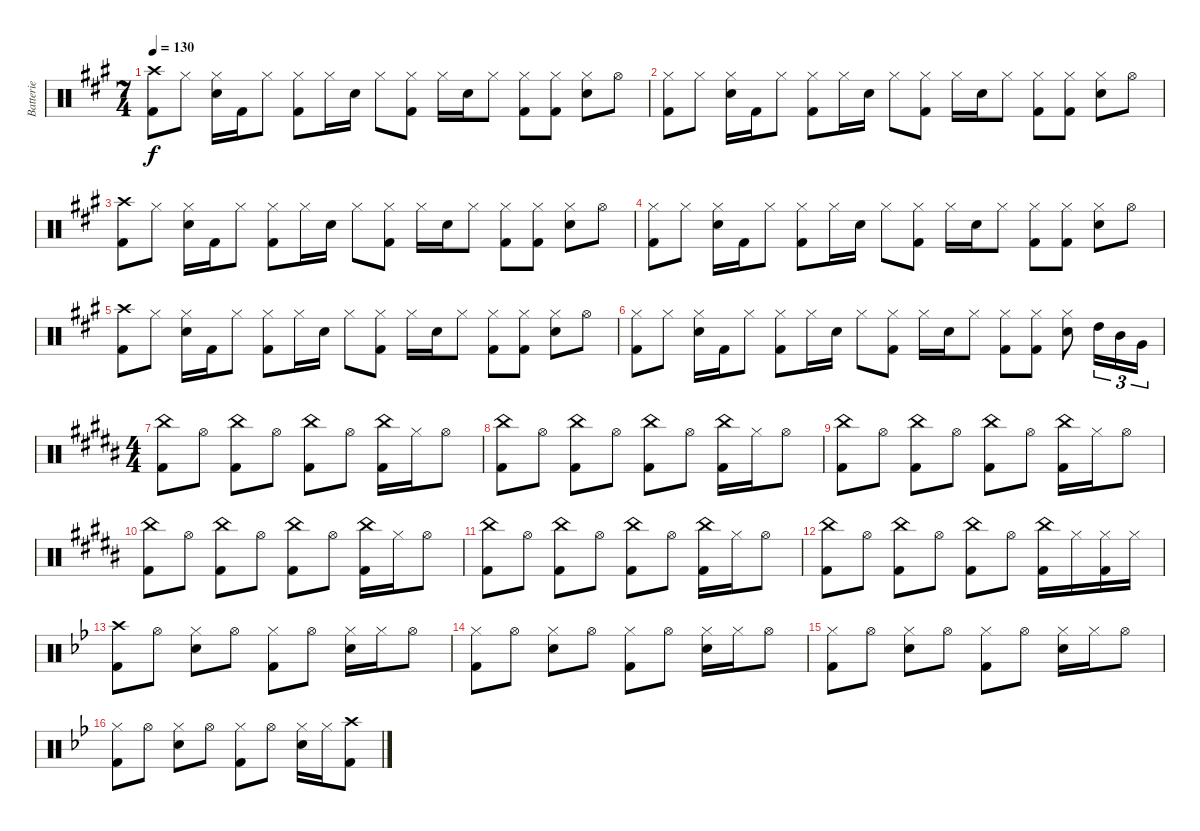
\track ("Batterie" "Batterie") {instrument percussion}
\staff {score}
\articulation defaults
\ts (7 4)
\tempo 130
\clef neutral
\ks a
("Crash high (hit)" "Kick (hit) 2").8{dy f} "Hi-Hat (closed)".8 ("Hi-Hat (closed)" "Snare (hit) 2").16 "Kick (hit) 2".16 "Hi-Hat (closed)".8 ("Hi-Hat (closed)" "Kick (hit) 2").8 "Hi-Hat (closed)".16 "Snare (hit) 2".16 "Hi-Hat (closed)".8 ("Hi-Hat (closed)" "Kick (hit) 2").8 "Hi-Hat (closed)".16 "Snare (hit) 2".16 "Hi-Hat (closed)".8 ("Hi-Hat (closed)" "Kick (hit) 2").8 ("Hi-Hat (closed)" "Kick (hit) 2").8 ("Hi-Hat (closed)" "Snare (hit) 2").8 "Hi-Hat (open)".8 |
("Hi-Hat (closed)" "Kick (hit) 2").8 "Hi-Hat (closed)".8 ("Hi-Hat (closed)" "Snare (hit) 2").16 "Kick (hit) 2".16 "Hi-Hat (closed)".8 ("Hi-Hat (closed)" "Kick (hit) 2").8 "Hi-Hat (closed)".16 "Snare (hit) 2".16 "Hi-Hat (closed)".8 ("Hi-Hat (closed)" "Kick (hit) 2").8 "Hi-Hat (closed)".16 "Snare (hit) 2".16 "Hi-Hat (closed)".8 ("Hi-Hat (closed)" "Kick (hit) 2").8 ("Hi-Hat (closed)" "Kick (hit) 2").8 ("Hi-Hat (closed)" "Snare (hit) 2").8 "Hi-Hat (open)".8 |
("Crash high (hit)" "Kick (hit) 2").8 "Hi-Hat (closed)".8 ("Hi-Hat (closed)" "Snare (hit) 2").16 "Kick (hit) 2".16 "Hi-Hat (closed)".8 ("Hi-Hat (closed)" "Kick (hit) 2").8 "Hi-Hat (closed)".16 "Snare (hit) 2".16 "Hi-Hat (closed)".8 ("Hi-Hat (closed)" "Kick (hit) 2").8 "Hi-Hat (closed)".16 "Snare (hit) 2".16 "Hi-Hat (closed)".8 ("Hi-Hat (closed)" "Kick (hit) 2").8 ("Hi-Hat (closed)" "Kick (hit) 2").8 ("Hi-Hat (closed)" "Snare (hit) 2").8 "Hi-Hat (open)".8 |
("Hi-Hat (closed)" "Kick (hit) 2").8 "Hi-Hat (closed)".8 ("Hi-Hat (closed)" "Snare (hit) 2").16 "Kick (hit) 2".16 "Hi-Hat (closed)".8 ("Hi-Hat (closed)" "Kick (hit) 2").8 "Hi-Hat (closed)".16 "Snare (hit) 2".16 "Hi-Hat (closed)".8 ("Hi-Hat (closed)" "Kick (hit) 2").8 "Hi-Hat (closed)".16 "Snare (hit) 2".16 "Hi-Hat (closed)".8 ("Hi-Hat (closed)" "Kick (hit) 2").8 ("Hi-Hat (closed)" "Kick (hit) 2").8 ("Hi-Hat (closed)" "Snare (hit) 2").8 "Hi-Hat (open)".8 |
("Crash high (hit)" "Kick (hit) 2").8 "Hi-Hat (closed)".8 ("Hi-Hat (closed)" "Snare (hit) 2").16 "Kick (hit) 2".16 "Hi-Hat (closed)".8 ("Hi-Hat (closed)" "Kick (hit) 2").8 "Hi-Hat (closed)".16 "Snare (hit) 2".16 "Hi-Hat (closed)".8 ("Hi-Hat (closed)" "Kick (hit) 2").8 "Hi-Hat (closed)".16 "Snare (hit) 2".16 "Hi-Hat (closed)".8 ("Hi-Hat (closed)" "Kick (hit) 2").8 ("Hi-Hat (closed)" "Kick (hit) 2").8 ("Hi-Hat (closed)" "Snare (hit) 2").8 "Hi-Hat (open)".8 |
("Hi-Hat (closed)" "Kick (hit) 2").8 "Hi-Hat (closed)".8 ("Hi-Hat (closed)" "Snare (hit) 2").16 "Kick (hit) 2".16 "Hi-Hat (closed)".8 ("Hi-Hat (closed)" "Kick (hit) 2").8 "Hi-Hat (closed)".16 "Snare (hit) 2".16 "Hi-Hat (closed)".8 ("Hi-Hat (closed)" "Kick (hit) 2").8 "Hi-Hat (closed)".16 "Snare (hit) 2".16 "Hi-Hat (closed)".8 ("Hi-Hat (closed)" "Kick (hit) 2").8 ("Hi-Hat (closed)" "Kick (hit) 2").8 ("Hi-Hat (closed)" "Snare (hit) 2").8 "High Tom (hit)".16{tu (3 2)} "Mid Tom (hit)".16{tu (3 2)} "Very Low Tom (hit)".16{tu (3 2)} |
\ts (4 4)
\ks b
("China (hit)" "Kick (hit) 2").8 "Hi-Hat (open)".8 ("China (hit)" "Kick (hit) 2").8 "Hi-Hat (open)".8 ("China (hit)" "Kick (hit) 2").8 "Hi-Hat (open)".8 ("China (hit)" "Kick (hit) 2").16 "Hi-Hat (closed)".16 "Hi-Hat (open)".8 |
("China (hit)" "Kick (hit) 2").8 "Hi-Hat (open)".8 ("China (hit)" "Kick (hit) 2").8 "Hi-Hat (open)".8 ("China (hit)" "Kick (hit) 2").8 "Hi-Hat (open)".8 ("China (hit)" "Kick (hit) 2").16 "Hi-Hat (closed)".16 "Hi-Hat (open)".8 |
("China (hit)" "Kick (hit) 2").8 "Hi-Hat (open)".8 ("China (hit)" "Kick (hit) 2").8 "Hi-Hat (open)".8 ("China (hit)" "Kick (hit) 2").8 "Hi-Hat (open)".8 ("China (hit)" "Kick (hit) 2").16 "Hi-Hat (closed)".16 "Hi-Hat (open)".8 |
("China (hit)" "Kick (hit) 2").8 "Hi-Hat (open)".8 ("China (hit)" "Kick (hit) 2").8 "Hi-Hat (open)".8 ("China (hit)" "Kick (hit) 2").8 "Hi-Hat (open)".8 ("China (hit)" "Kick (hit) 2").16 "Hi-Hat (closed)".16 "Hi-Hat (open)".8 |
("China (hit)" "Kick (hit) 2").8 "Hi-Hat (open)".8 ("China (hit)" "Kick (hit) 2").8 "Hi-Hat (open)".8 ("China (hit)" "Kick (hit) 2").8 "Hi-Hat (open)".8 ("China (hit)" "Kick (hit) 2").16 "Hi-Hat (closed)".16 "Hi-Hat (open)".8 |
("China (hit)" "Kick (hit) 2").8 "Hi-Hat (open)".8 ("China (hit)" "Kick (hit) 2").8 "Hi-Hat (open)".8 ("China (hit)" "Kick (hit) 2").8 "Hi-Hat (open)".8 ("China (hit)" "Kick (hit) 2").16 "Hi-Hat (closed)".16 ("Hi-Hat (closed)" "Kick (hit) 2").16 "Hi-Hat (closed)".16 |
\ks bb
("Crash high (hit)" "Kick (hit) 2").8 "Hi-Hat (open)".8 ("Hi-Hat (closed)" "Snare (hit) 2").8 "Hi-Hat (open)".8 ("Hi-Hat (closed)" "Kick (hit) 2").8 "Hi-Hat (open)".8 ("Hi-Hat (closed)" "Snare (hit) 2").16 "Hi-Hat (closed)".16 "Hi-Hat (open)".8 |
("Hi-Hat (closed)" "Kick (hit) 2").8 "Hi-Hat (open)".8 ("Hi-Hat (closed)" "Snare (hit) 2").8 "Hi-Hat (open)".8 ("Hi-Hat (closed)" "Kick (hit) 2").8 "Hi-Hat (open)".8 ("Hi-Hat (closed)" "Snare (hit) 2").16 "Hi-Hat (closed)".16 "Hi-Hat (open)".8 |
("Hi-Hat (closed)" "Kick (hit) 2").8 "Hi-Hat (open)".8 ("Hi-Hat (closed)" "Snare (hit) 2").8 "Hi-Hat (open)".8 ("Hi-Hat (closed)" "Kick (hit) 2").8 "Hi-Hat (open)".8 ("Hi-Hat (closed)" "Snare (hit) 2").16 "Hi-Hat (closed)".16 "Hi-Hat (open)".8 |
("Hi-Hat (closed)" "Kick (hit) 2").8 "Hi-Hat (open)".8 ("Hi-Hat (closed)" "Snare (hit) 2").8 "Hi-Hat (open)".8 ("Hi-Hat (closed)" "Kick (hit) 2").8 "Hi-Hat (open)".8 ("Hi-Hat (closed)" "Snare (hit) 2").16 "Hi-Hat (closed)".16 ("Crash high (hit)" "Kick (hit) 2").8
